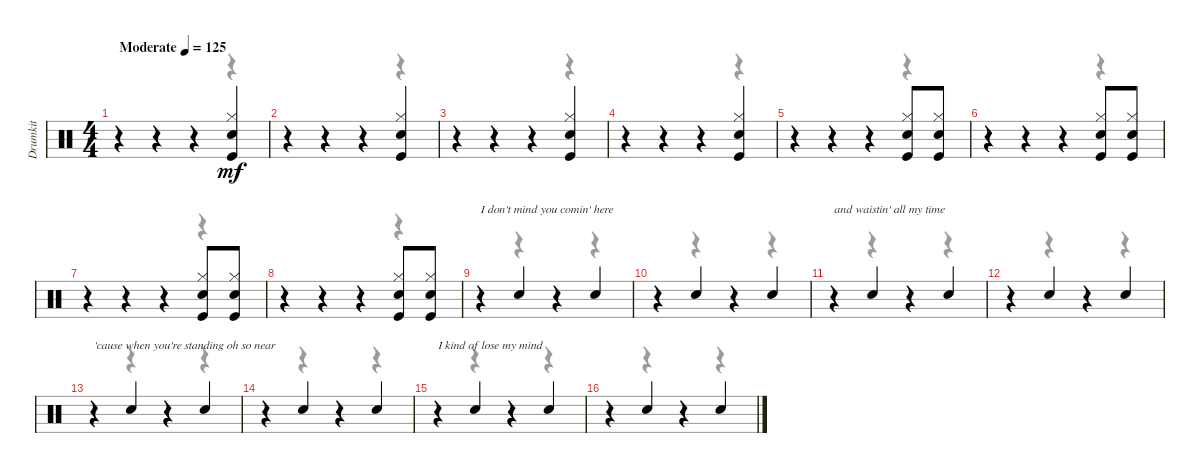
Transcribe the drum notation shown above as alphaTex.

\track ("Drumkit" "Drumkit") {instrument percussion}
\staff {score}
\articulation defaults
\voice
\ts (4 4)
\tempo (125 "Moderate")
\clef neutral
\ks c
r.4{dy mf} r.4 r.4 ("Kick (hit)" "Hi-Hat (closed)" "Snare (hit) 2").4 |
r.4 r.4 r.4 ("Kick (hit)" "Hi-Hat (closed)" "Snare (hit) 2").4 |
r.4 r.4 r.4 ("Kick (hit)" "Hi-Hat (closed)" "Snare (hit) 2").4 |
r.4 r.4 r.4 ("Kick (hit)" "Hi-Hat (closed)" "Snare (hit) 2").4 |
r.4 r.4 r.4 ("Kick (hit)" "Hi-Hat (closed)" "Snare (hit) 2").8 ("Kick (hit)" "Hi-Hat (closed)" "Snare (hit) 2").8 |
r.4 r.4 r.4 ("Kick (hit)" "Hi-Hat (closed)" "Snare (hit) 2").8 ("Kick (hit)" "Hi-Hat (closed)" "Snare (hit) 2").8 |
r.4 r.4 r.4 ("Kick (hit)" "Hi-Hat (closed)" "Snare (hit) 2").8 ("Kick (hit)" "Hi-Hat (closed)" "Snare (hit) 2").8 |
r.4 r.4 r.4 ("Kick (hit)" "Hi-Hat (closed)" "Snare (hit) 2").8 ("Kick (hit)" "Hi-Hat (closed)" "Snare (hit) 2").8 |
r.4{txt "I don't mind you comin' here"} "Snare (hit) 2".4 r.4 "Snare (hit) 2".4 |
r.4 "Snare (hit) 2".4 r.4 "Snare (hit) 2".4 |
r.4{txt "and waistin' all my time"} "Snare (hit) 2".4 r.4 "Snare (hit) 2".4 |
r.4 "Snare (hit) 2".4 r.4 "Snare (hit) 2".4 |
r.4{txt "'cause when you're standing oh so near"} "Snare (hit) 2".4 r.4 "Snare (hit) 2".4 |
r.4 "Snare (hit) 2".4 r.4 "Snare (hit) 2".4 |
r.4{txt "I kind of lose my mind"} "Snare (hit) 2".4 r.4 "Snare (hit) 2".4 |
r.4 "Snare (hit) 2".4 r.4 "Snare (hit) 2".4
\voice
\clef neutral
\ottava regular
\simile none
\ks c
r.4{dy f} r.4 r.4 r.4 |
r.4 r.4 r.4 r.4 |
r.4 r.4 r.4 r.4 |
r.4 r.4 r.4 r.4 |
r.4 r.4 r.4 r.4 |
r.4 r.4 r.4 r.4 |
r.4 r.4 r.4 r.4 |
r.4 r.4 r.4 r.4 |
r.4 r.4 r.4 r.4 |
r.4 r.4 r.4 r.4 |
r.4 r.4 r.4 r.4 |
r.4 r.4 r.4 r.4 |
r.4 r.4 r.4 r.4 |
r.4 r.4 r.4 r.4 |
r.4 r.4 r.4 r.4 |
r.4 r.4 r.4 r.4
